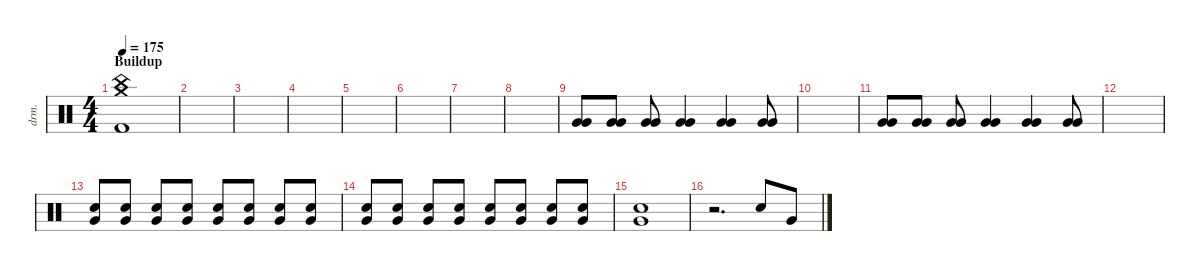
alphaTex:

\defaultSystemsLayout 4
\hideDynamics
\bracketExtendMode nobrackets
\track ("Drums - Mario" "drm.") {instrument percussion}
\staff {score}
\articulation defaults
\ts (4 4)
\section ("" "Buildup")
\tempo 175
\clef neutral
\ks c
("Kick (hit) 2" "China (hit)" "Crash medium (hit)").1{dy ff} |
|
|
|
|
|
|
|
("Very Low Tom (hit)" "Very Low Tom (hit)").8 ("Very Low Tom (hit)" "Very Low Tom (hit)").8 ("Very Low Tom (hit)" "Very Low Tom (hit)").8 ("Very Low Tom (hit)" "Very Low Tom (hit)").4 ("Very Low Tom (hit)" "Very Low Tom (hit)").4 ("Very Low Tom (hit)" "Very Low Tom (hit)").8 |
|
("Very Low Tom (hit)" "Very Low Tom (hit)").8 ("Very Low Tom (hit)" "Very Low Tom (hit)").8 ("Very Low Tom (hit)" "Very Low Tom (hit)").8 ("Very Low Tom (hit)" "Very Low Tom (hit)").4 ("Very Low Tom (hit)" "Very Low Tom (hit)").4 ("Very Low Tom (hit)" "Very Low Tom (hit)").8 |
|
("Snare (hit) 2" "Very Low Tom (hit)").8{dy p} ("Snare (hit) 2" "Very Low Tom (hit)").8 ("Snare (hit) 2" "Very Low Tom (hit)").8 ("Snare (hit) 2" "Very Low Tom (hit)").8 ("Snare (hit) 2" "Very Low Tom (hit)").8 ("Snare (hit) 2" "Very Low Tom (hit)").8 ("Snare (hit) 2" "Very Low Tom (hit)").8 ("Snare (hit) 2" "Very Low Tom (hit)").8 |
("Snare (hit) 2" "Very Low Tom (hit)").8{dy mf} ("Snare (hit) 2" "Very Low Tom (hit)").8 ("Snare (hit) 2" "Very Low Tom (hit)").8 ("Snare (hit) 2" "Very Low Tom (hit)").8 ("Snare (hit) 2" "Very Low Tom (hit)").8 ("Snare (hit) 2" "Very Low Tom (hit)").8 ("Snare (hit) 2" "Very Low Tom (hit)").8 ("Snare (hit) 2" "Very Low Tom (hit)").8 |
("Snare (hit) 2" "Very Low Tom (hit)").1{dy ff} |
r.2{d} "Snare (hit) 2".8 "Very Low Tom (hit)".8
